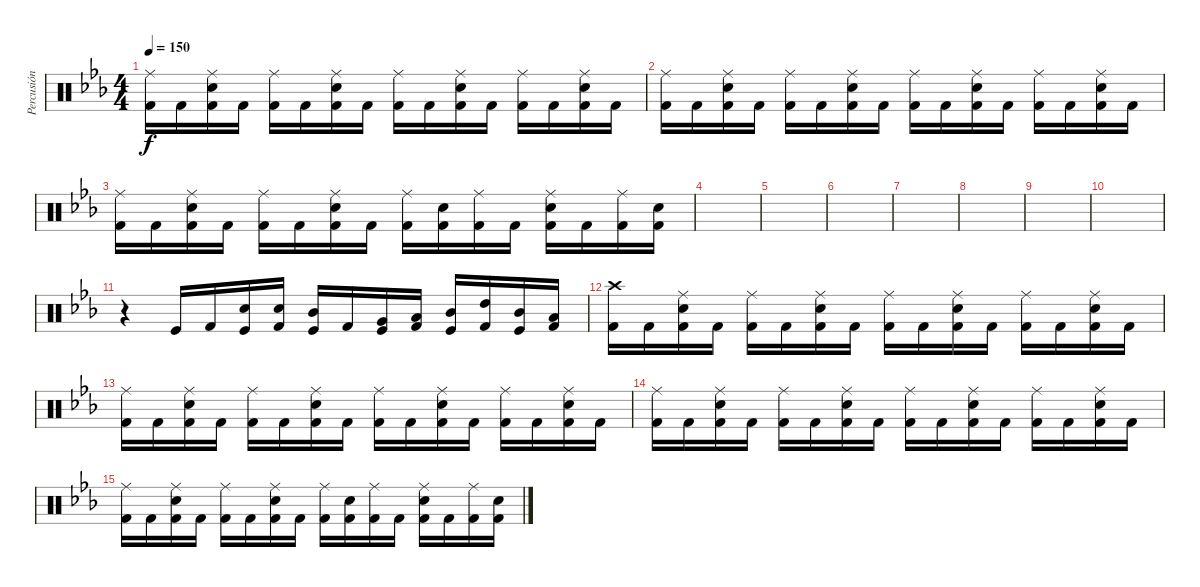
\track ("Percusión" "Percusión") {instrument percussion}
\staff {score}
\articulation defaults
\ts (4 4)
\tempo 150
\clef neutral
\ks cminor
("Ride (middle)" "Kick (hit) 2").16{dy f} "Kick (hit) 2".16 ("Ride (middle)" "Electric Snare (hit)" "Kick (hit) 2").16 "Kick (hit) 2".16 ("Ride (middle)" "Kick (hit) 2").16 "Kick (hit) 2".16 ("Ride (middle)" "Electric Snare (hit)" "Kick (hit) 2").16 "Kick (hit) 2".16 ("Ride (middle)" "Kick (hit) 2").16 "Kick (hit) 2".16 ("Ride (middle)" "Electric Snare (hit)" "Kick (hit) 2").16 "Kick (hit) 2".16 ("Ride (middle)" "Kick (hit) 2").16 "Kick (hit) 2".16 ("Ride (middle)" "Electric Snare (hit)" "Kick (hit) 2").16 "Kick (hit) 2".16 |
("Ride (middle)" "Kick (hit) 2").16 "Kick (hit) 2".16 ("Ride (middle)" "Electric Snare (hit)" "Kick (hit) 2").16 "Kick (hit) 2".16 ("Ride (middle)" "Kick (hit) 2").16 "Kick (hit) 2".16 ("Ride (middle)" "Electric Snare (hit)" "Kick (hit) 2").16 "Kick (hit) 2".16 ("Ride (middle)" "Kick (hit) 2").16 "Kick (hit) 2".16 ("Ride (middle)" "Electric Snare (hit)" "Kick (hit) 2").16 "Kick (hit) 2".16 ("Ride (middle)" "Kick (hit) 2").16 "Kick (hit) 2".16 ("Ride (middle)" "Electric Snare (hit)" "Kick (hit) 2").16 "Kick (hit) 2".16 |
("Ride (middle)" "Kick (hit) 2").16 "Kick (hit) 2".16 ("Ride (middle)" "Electric Snare (hit)" "Kick (hit) 2").16 "Kick (hit) 2".16 ("Ride (middle)" "Kick (hit) 2").16 "Kick (hit) 2".16 ("Ride (middle)" "Electric Snare (hit)" "Kick (hit) 2").16 "Kick (hit) 2".16 ("Ride (middle)" "Kick (hit) 2").16 ("Electric Snare (hit)" "Kick (hit) 2").16 ("Ride (middle)" "Kick (hit) 2").16 "Kick (hit) 2".16 ("Ride (middle)" "Electric Snare (hit)" "Kick (hit) 2").16 "Kick (hit) 2".16 ("Ride (middle)" "Kick (hit) 2").16 ("Electric Snare (hit)" "Kick (hit) 2").16 |
|
|
|
|
|
|
|
r.4 "Kick (hit)".16 "Kick (hit) 2".16 ("Kick (hit)" "Electric Snare (hit)").16 ("Kick (hit) 2" "Electric Snare (hit)").16 ("Kick (hit)" "Mid Tom (hit)").16 "Kick (hit) 2".16 ("Kick (hit)" "Very Low Tom (hit)").16 ("Kick (hit) 2" "Low Tom (hit)").16 ("Kick (hit)" "Mid Tom (hit)").16 ("Kick (hit) 2" "High Tom (hit)").16 ("Kick (hit)" "Mid Tom (hit)").16 ("Kick (hit) 2" "Low Tom (hit)").16 |
("Crash high (hit)" "Kick (hit) 2").16 "Kick (hit) 2".16 ("Ride (middle)" "Electric Snare (hit)" "Kick (hit) 2").16 "Kick (hit) 2".16 ("Ride (middle)" "Kick (hit) 2").16 "Kick (hit) 2".16 ("Ride (middle)" "Electric Snare (hit)" "Kick (hit) 2").16 "Kick (hit) 2".16 ("Ride (middle)" "Kick (hit) 2").16 "Kick (hit) 2".16 ("Ride (middle)" "Electric Snare (hit)" "Kick (hit) 2").16 "Kick (hit) 2".16 ("Ride (middle)" "Kick (hit) 2").16 "Kick (hit) 2".16 ("Ride (middle)" "Electric Snare (hit)" "Kick (hit) 2").16 "Kick (hit) 2".16 |
("Ride (middle)" "Kick (hit) 2").16 "Kick (hit) 2".16 ("Ride (middle)" "Electric Snare (hit)" "Kick (hit) 2").16 "Kick (hit) 2".16 ("Ride (middle)" "Kick (hit) 2").16 "Kick (hit) 2".16 ("Ride (middle)" "Electric Snare (hit)" "Kick (hit) 2").16 "Kick (hit) 2".16 ("Ride (middle)" "Kick (hit) 2").16 "Kick (hit) 2".16 ("Ride (middle)" "Electric Snare (hit)" "Kick (hit) 2").16 "Kick (hit) 2".16 ("Ride (middle)" "Kick (hit) 2").16 "Kick (hit) 2".16 ("Ride (middle)" "Electric Snare (hit)" "Kick (hit) 2").16 "Kick (hit) 2".16 |
("Ride (middle)" "Kick (hit) 2").16 "Kick (hit) 2".16 ("Ride (middle)" "Electric Snare (hit)" "Kick (hit) 2").16 "Kick (hit) 2".16 ("Ride (middle)" "Kick (hit) 2").16 "Kick (hit) 2".16 ("Ride (middle)" "Electric Snare (hit)" "Kick (hit) 2").16 "Kick (hit) 2".16 ("Ride (middle)" "Kick (hit) 2").16 "Kick (hit) 2".16 ("Ride (middle)" "Electric Snare (hit)" "Kick (hit) 2").16 "Kick (hit) 2".16 ("Ride (middle)" "Kick (hit) 2").16 "Kick (hit) 2".16 ("Ride (middle)" "Electric Snare (hit)" "Kick (hit) 2").16 "Kick (hit) 2".16 |
("Ride (middle)" "Kick (hit) 2").16 "Kick (hit) 2".16 ("Ride (middle)" "Electric Snare (hit)" "Kick (hit) 2").16 "Kick (hit) 2".16 ("Ride (middle)" "Kick (hit) 2").16 "Kick (hit) 2".16 ("Ride (middle)" "Electric Snare (hit)" "Kick (hit) 2").16 "Kick (hit) 2".16 ("Ride (middle)" "Kick (hit) 2").16 ("Electric Snare (hit)" "Kick (hit) 2").16 ("Ride (middle)" "Kick (hit) 2").16 "Kick (hit) 2".16 ("Ride (middle)" "Electric Snare (hit)" "Kick (hit) 2").16 "Kick (hit) 2".16 ("Ride (middle)" "Kick (hit) 2").16 ("Electric Snare (hit)" "Kick (hit) 2").16
